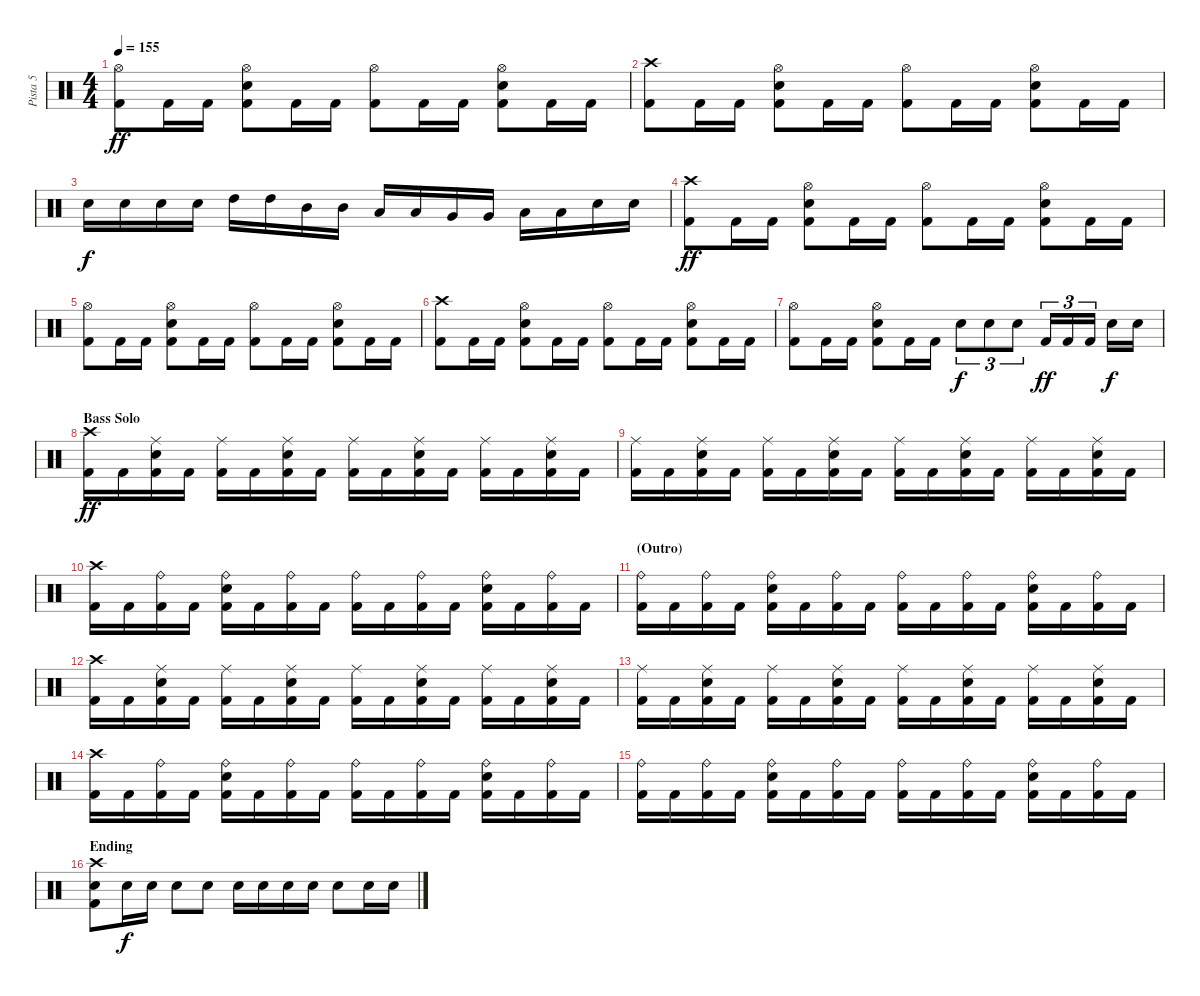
\track ("Pista 5" "Pista 5") {instrument percussion}
\staff {score}
\articulation defaults
\ts (4 4)
\tempo 155
\clef neutral
\ks c
("Hi-Hat (open)" "Kick (hit) 2").8{dy ff} "Kick (hit) 2".16 "Kick (hit) 2".16 ("Hi-Hat (open)" "Electric Snare (hit)" "Kick (hit) 2").8 "Kick (hit) 2".16 "Kick (hit) 2".16 ("Hi-Hat (open)" "Kick (hit) 2").8 "Kick (hit) 2".16 "Kick (hit) 2".16 ("Hi-Hat (open)" "Electric Snare (hit)" "Kick (hit) 2").8 "Kick (hit) 2".16 "Kick (hit) 2".16 |
("Crash high (hit)" "Kick (hit) 2").8 "Kick (hit) 2".16 "Kick (hit) 2".16 ("Hi-Hat (open)" "Electric Snare (hit)" "Kick (hit) 2").8 "Kick (hit) 2".16 "Kick (hit) 2".16 ("Hi-Hat (open)" "Kick (hit) 2").8 "Kick (hit) 2".16 "Kick (hit) 2".16 ("Hi-Hat (open)" "Electric Snare (hit)" "Kick (hit) 2").8 "Kick (hit) 2".16 "Kick (hit) 2".16 |
"Electric Snare (hit)".16{dy f} "Electric Snare (hit)".16 "Electric Snare (hit)".16 "Electric Snare (hit)".16 "High Tom (hit)".16 "High Tom (hit)".16 "Mid Tom (hit)".16 "Mid Tom (hit)".16 "Low Tom (hit)".16 "Low Tom (hit)".16 "Very Low Tom (hit)".16 "Very Low Tom (hit)".16 "Low Floor Tom (hit)".16 "Low Floor Tom (hit)".16 "Electric Snare (hit)".16 "Electric Snare (hit)".16 |
("Crash high (hit)" "Kick (hit) 2").8{dy ff} "Kick (hit) 2".16 "Kick (hit) 2".16 ("Hi-Hat (open)" "Electric Snare (hit)" "Kick (hit) 2").8 "Kick (hit) 2".16 "Kick (hit) 2".16 ("Hi-Hat (open)" "Kick (hit) 2").8 "Kick (hit) 2".16 "Kick (hit) 2".16 ("Hi-Hat (open)" "Electric Snare (hit)" "Kick (hit) 2").8 "Kick (hit) 2".16 "Kick (hit) 2".16 |
("Hi-Hat (open)" "Kick (hit) 2").8 "Kick (hit) 2".16 "Kick (hit) 2".16 ("Hi-Hat (open)" "Electric Snare (hit)" "Kick (hit) 2").8 "Kick (hit) 2".16 "Kick (hit) 2".16 ("Hi-Hat (open)" "Kick (hit) 2").8 "Kick (hit) 2".16 "Kick (hit) 2".16 ("Hi-Hat (open)" "Electric Snare (hit)" "Kick (hit) 2").8 "Kick (hit) 2".16 "Kick (hit) 2".16 |
("Crash high (hit)" "Kick (hit) 2").8 "Kick (hit) 2".16 "Kick (hit) 2".16 ("Hi-Hat (open)" "Electric Snare (hit)" "Kick (hit) 2").8 "Kick (hit) 2".16 "Kick (hit) 2".16 ("Hi-Hat (open)" "Kick (hit) 2").8 "Kick (hit) 2".16 "Kick (hit) 2".16 ("Hi-Hat (open)" "Electric Snare (hit)" "Kick (hit) 2").8 "Kick (hit) 2".16 "Kick (hit) 2".16 |
("Hi-Hat (open)" "Kick (hit) 2").8 "Kick (hit) 2".16 "Kick (hit) 2".16 ("Hi-Hat (open)" "Electric Snare (hit)" "Kick (hit) 2").8 "Kick (hit) 2".16 "Kick (hit) 2".16 "Electric Snare (hit)".8{tu (3 2) dy f} "Electric Snare (hit)".8{tu (3 2)} "Electric Snare (hit)".8{tu (3 2)} "Kick (hit) 2".16{tu (3 2) dy ff} "Kick (hit) 2".16{tu (3 2)} "Kick (hit) 2".16{tu (3 2)} "Electric Snare (hit)".16{dy f} "Electric Snare (hit)".16 |
\section ("" "Bass Solo")
("Crash high (hit)" "Kick (hit) 2").16{dy ff} "Kick (hit) 2".16 ("Ride (middle)" "Electric Snare (hit)" "Kick (hit) 2").16 "Kick (hit) 2".16 ("Ride (middle)" "Kick (hit) 2").16 "Kick (hit) 2".16 ("Ride (middle)" "Electric Snare (hit)" "Kick (hit) 2").16 "Kick (hit) 2".16 ("Ride (middle)" "Kick (hit) 2").16 "Kick (hit) 2".16 ("Ride (middle)" "Electric Snare (hit)" "Kick (hit) 2").16 "Kick (hit) 2".16 ("Ride (middle)" "Kick (hit) 2").16 "Kick (hit) 2".16 ("Ride (middle)" "Electric Snare (hit)" "Kick (hit) 2").16 "Kick (hit) 2".16 |
("Ride (middle)" "Kick (hit) 2").16 "Kick (hit) 2".16 ("Ride (middle)" "Electric Snare (hit)" "Kick (hit) 2").16 "Kick (hit) 2".16 ("Ride (middle)" "Kick (hit) 2").16 "Kick (hit) 2".16 ("Ride (middle)" "Electric Snare (hit)" "Kick (hit) 2").16 "Kick (hit) 2".16 ("Ride (middle)" "Kick (hit) 2").16 "Kick (hit) 2".16 ("Ride (middle)" "Electric Snare (hit)" "Kick (hit) 2").16 "Kick (hit) 2".16 ("Ride (middle)" "Kick (hit) 2").16 "Kick (hit) 2".16 ("Ride (middle)" "Electric Snare (hit)" "Kick (hit) 2").16 "Kick (hit) 2".16 |
("Crash high (hit)" "Kick (hit) 2").16 "Kick (hit) 2".16 ("Ride (bell)" "Kick (hit) 2").16 "Kick (hit) 2".16 ("Ride (bell)" "Electric Snare (hit)" "Kick (hit) 2").16 "Kick (hit) 2".16 ("Ride (bell)" "Kick (hit) 2").16 "Kick (hit) 2".16 ("Ride (bell)" "Kick (hit) 2").16 "Kick (hit) 2".16 ("Ride (bell)" "Kick (hit) 2").16 "Kick (hit) 2".16 ("Ride (bell)" "Electric Snare (hit)" "Kick (hit) 2").16 "Kick (hit) 2".16 ("Ride (bell)" "Kick (hit) 2").16 "Kick (hit) 2".16 |
\section ("" "(Outro)")
("Ride (bell)" "Kick (hit) 2").16 "Kick (hit) 2".16 ("Ride (bell)" "Kick (hit) 2").16 "Kick (hit) 2".16 ("Ride (bell)" "Electric Snare (hit)" "Kick (hit) 2").16 "Kick (hit) 2".16 ("Ride (bell)" "Kick (hit) 2").16 "Kick (hit) 2".16 ("Ride (bell)" "Kick (hit) 2").16 "Kick (hit) 2".16 ("Ride (bell)" "Kick (hit) 2").16 "Kick (hit) 2".16 ("Ride (bell)" "Electric Snare (hit)" "Kick (hit) 2").16 "Kick (hit) 2".16 ("Ride (bell)" "Kick (hit) 2").16 "Kick (hit) 2".16 |
("Crash high (hit)" "Kick (hit) 2").16 "Kick (hit) 2".16 ("Ride (middle)" "Electric Snare (hit)" "Kick (hit) 2").16 "Kick (hit) 2".16 ("Ride (middle)" "Kick (hit) 2").16 "Kick (hit) 2".16 ("Ride (middle)" "Electric Snare (hit)" "Kick (hit) 2").16 "Kick (hit) 2".16 ("Ride (middle)" "Kick (hit) 2").16 "Kick (hit) 2".16 ("Ride (middle)" "Electric Snare (hit)" "Kick (hit) 2").16 "Kick (hit) 2".16 ("Ride (middle)" "Kick (hit) 2").16 "Kick (hit) 2".16 ("Ride (middle)" "Electric Snare (hit)" "Kick (hit) 2").16 "Kick (hit) 2".16 |
("Ride (middle)" "Kick (hit) 2").16 "Kick (hit) 2".16 ("Ride (middle)" "Electric Snare (hit)" "Kick (hit) 2").16 "Kick (hit) 2".16 ("Ride (middle)" "Kick (hit) 2").16 "Kick (hit) 2".16 ("Ride (middle)" "Electric Snare (hit)" "Kick (hit) 2").16 "Kick (hit) 2".16 ("Ride (middle)" "Kick (hit) 2").16 "Kick (hit) 2".16 ("Ride (middle)" "Electric Snare (hit)" "Kick (hit) 2").16 "Kick (hit) 2".16 ("Ride (middle)" "Kick (hit) 2").16 "Kick (hit) 2".16 ("Ride (middle)" "Electric Snare (hit)" "Kick (hit) 2").16 "Kick (hit) 2".16 |
("Crash high (hit)" "Kick (hit) 2").16 "Kick (hit) 2".16 ("Ride (bell)" "Kick (hit) 2").16 "Kick (hit) 2".16 ("Ride (bell)" "Electric Snare (hit)" "Kick (hit) 2").16 "Kick (hit) 2".16 ("Ride (bell)" "Kick (hit) 2").16 "Kick (hit) 2".16 ("Ride (bell)" "Kick (hit) 2").16 "Kick (hit) 2".16 ("Ride (bell)" "Kick (hit) 2").16 "Kick (hit) 2".16 ("Ride (bell)" "Electric Snare (hit)" "Kick (hit) 2").16 "Kick (hit) 2".16 ("Ride (bell)" "Kick (hit) 2").16 "Kick (hit) 2".16 |
("Ride (bell)" "Kick (hit) 2").16 "Kick (hit) 2".16 ("Ride (bell)" "Kick (hit) 2").16 "Kick (hit) 2".16 ("Ride (bell)" "Electric Snare (hit)" "Kick (hit) 2").16 "Kick (hit) 2".16 ("Ride (bell)" "Kick (hit) 2").16 "Kick (hit) 2".16 ("Ride (bell)" "Kick (hit) 2").16 "Kick (hit) 2".16 ("Ride (bell)" "Kick (hit) 2").16 "Kick (hit) 2".16 ("Ride (bell)" "Electric Snare (hit)" "Kick (hit) 2").16 "Kick (hit) 2".16 ("Ride (bell)" "Kick (hit) 2").16 "Kick (hit) 2".16 |
\section ("" "Ending")
("Crash high (hit)" "Electric Snare (hit)" "Kick (hit) 2").8 "Electric Snare (hit)".16{dy f} "Electric Snare (hit)".16 "Electric Snare (hit)".8 "Electric Snare (hit)".8 "Electric Snare (hit)".16 "Electric Snare (hit)".16 "Electric Snare (hit)".16 "Electric Snare (hit)".16 "Electric Snare (hit)".8 "Electric Snare (hit)".16 "Electric Snare (hit)".16
